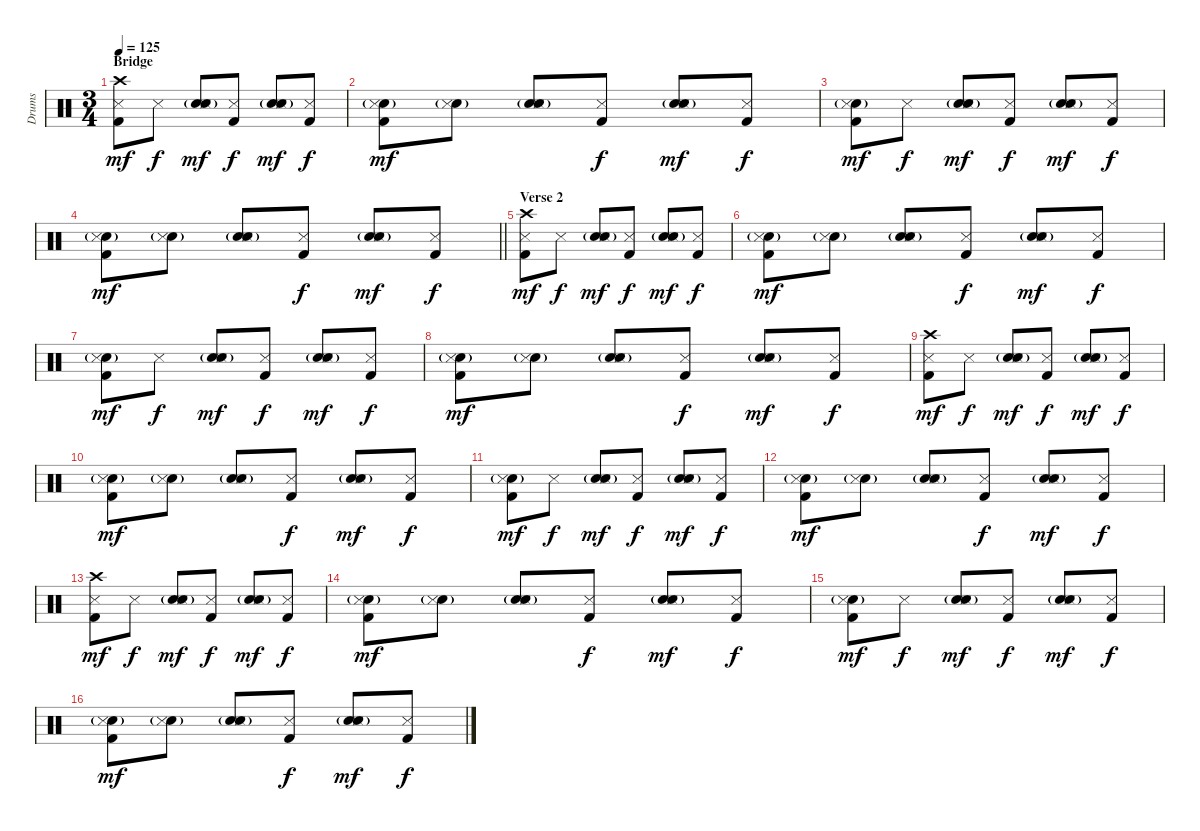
\track ("Drums" "Drums") {instrument percussion}
\staff {score}
\articulation defaults
\ts (3 4)
\section ("" "Bridge")
\tempo 125
\clef neutral
\ks c
("Crash high (hit)" "Snare (side stick) 3" "Kick (hit) 2").8{dy mf} "Snare (side stick) 3".8{dy f} ("Hand Clap (hit)"{g} "Snare (side stick) 3" "Electric Snare (hit)").8{dy mf} ("Snare (side stick) 3" "Kick (hit) 2").8{dy f} ("Hand Clap (hit)"{g} "Snare (side stick) 3" "Electric Snare (hit)").8{dy mf} ("Snare (side stick) 3" "Kick (hit) 2").8{dy f} |
("Hand Clap (hit)"{g} "Snare (side stick) 3" "Kick (hit) 2").8{dy mf} ("Hand Clap (hit)"{g} "Snare (side stick) 3").8 ("Hand Clap (hit)"{g} "Snare (side stick) 3" "Electric Snare (hit)").8 ("Snare (side stick) 3" "Kick (hit) 2").8{dy f} ("Hand Clap (hit)"{g} "Snare (side stick) 3" "Electric Snare (hit)").8{dy mf} ("Snare (side stick) 3" "Kick (hit) 2").8{dy f} |
("Hand Clap (hit)"{g} "Snare (side stick) 3" "Kick (hit) 2").8{dy mf} "Snare (side stick) 3".8{dy f} ("Hand Clap (hit)"{g} "Snare (side stick) 3" "Electric Snare (hit)").8{dy mf} ("Snare (side stick) 3" "Kick (hit) 2").8{dy f} ("Hand Clap (hit)"{g} "Snare (side stick) 3" "Electric Snare (hit)").8{dy mf} ("Snare (side stick) 3" "Kick (hit) 2").8{dy f} |
\barLineRight lightlight
("Hand Clap (hit)"{g} "Snare (side stick) 3" "Kick (hit) 2").8{dy mf} ("Hand Clap (hit)"{g} "Snare (side stick) 3").8 ("Hand Clap (hit)"{g} "Snare (side stick) 3" "Electric Snare (hit)").8 ("Snare (side stick) 3" "Kick (hit) 2").8{dy f} ("Hand Clap (hit)"{g} "Snare (side stick) 3" "Electric Snare (hit)").8{dy mf} ("Snare (side stick) 3" "Kick (hit) 2").8{dy f} |
\section ("" "Verse 2")
("Crash high (hit)" "Snare (side stick) 3" "Kick (hit) 2").8{dy mf} "Snare (side stick) 3".8{dy f} ("Hand Clap (hit)"{g} "Snare (side stick) 3" "Electric Snare (hit)").8{dy mf} ("Snare (side stick) 3" "Kick (hit) 2").8{dy f} ("Hand Clap (hit)"{g} "Snare (side stick) 3" "Electric Snare (hit)").8{dy mf} ("Snare (side stick) 3" "Kick (hit) 2").8{dy f} |
("Hand Clap (hit)"{g} "Snare (side stick) 3" "Kick (hit) 2").8{dy mf} ("Hand Clap (hit)"{g} "Snare (side stick) 3").8 ("Hand Clap (hit)"{g} "Snare (side stick) 3" "Electric Snare (hit)").8 ("Snare (side stick) 3" "Kick (hit) 2").8{dy f} ("Hand Clap (hit)"{g} "Snare (side stick) 3" "Electric Snare (hit)").8{dy mf} ("Snare (side stick) 3" "Kick (hit) 2").8{dy f} |
("Hand Clap (hit)"{g} "Snare (side stick) 3" "Kick (hit) 2").8{dy mf} "Snare (side stick) 3".8{dy f} ("Hand Clap (hit)"{g} "Snare (side stick) 3" "Electric Snare (hit)").8{dy mf} ("Snare (side stick) 3" "Kick (hit) 2").8{dy f} ("Hand Clap (hit)"{g} "Snare (side stick) 3" "Electric Snare (hit)").8{dy mf} ("Snare (side stick) 3" "Kick (hit) 2").8{dy f} |
("Hand Clap (hit)"{g} "Snare (side stick) 3" "Kick (hit) 2").8{dy mf} ("Hand Clap (hit)"{g} "Snare (side stick) 3").8 ("Hand Clap (hit)"{g} "Snare (side stick) 3" "Electric Snare (hit)").8 ("Snare (side stick) 3" "Kick (hit) 2").8{dy f} ("Hand Clap (hit)"{g} "Snare (side stick) 3" "Electric Snare (hit)").8{dy mf} ("Snare (side stick) 3" "Kick (hit) 2").8{dy f} |
("Crash high (hit)" "Snare (side stick) 3" "Kick (hit) 2").8{dy mf} "Snare (side stick) 3".8{dy f} ("Hand Clap (hit)"{g} "Snare (side stick) 3" "Electric Snare (hit)").8{dy mf} ("Snare (side stick) 3" "Kick (hit) 2").8{dy f} ("Hand Clap (hit)"{g} "Snare (side stick) 3" "Electric Snare (hit)").8{dy mf} ("Snare (side stick) 3" "Kick (hit) 2").8{dy f} |
("Hand Clap (hit)"{g} "Snare (side stick) 3" "Kick (hit) 2").8{dy mf} ("Hand Clap (hit)"{g} "Snare (side stick) 3").8 ("Hand Clap (hit)"{g} "Snare (side stick) 3" "Electric Snare (hit)").8 ("Snare (side stick) 3" "Kick (hit) 2").8{dy f} ("Hand Clap (hit)"{g} "Snare (side stick) 3" "Electric Snare (hit)").8{dy mf} ("Snare (side stick) 3" "Kick (hit) 2").8{dy f} |
("Hand Clap (hit)"{g} "Snare (side stick) 3" "Kick (hit) 2").8{dy mf} "Snare (side stick) 3".8{dy f} ("Hand Clap (hit)"{g} "Snare (side stick) 3" "Electric Snare (hit)").8{dy mf} ("Snare (side stick) 3" "Kick (hit) 2").8{dy f} ("Hand Clap (hit)"{g} "Snare (side stick) 3" "Electric Snare (hit)").8{dy mf} ("Snare (side stick) 3" "Kick (hit) 2").8{dy f} |
("Hand Clap (hit)"{g} "Snare (side stick) 3" "Kick (hit) 2").8{dy mf} ("Hand Clap (hit)"{g} "Snare (side stick) 3").8 ("Hand Clap (hit)"{g} "Snare (side stick) 3" "Electric Snare (hit)").8 ("Snare (side stick) 3" "Kick (hit) 2").8{dy f} ("Hand Clap (hit)"{g} "Snare (side stick) 3" "Electric Snare (hit)").8{dy mf} ("Snare (side stick) 3" "Kick (hit) 2").8{dy f} |
("Crash high (hit)" "Snare (side stick) 3" "Kick (hit) 2").8{dy mf} "Snare (side stick) 3".8{dy f} ("Hand Clap (hit)"{g} "Snare (side stick) 3" "Electric Snare (hit)").8{dy mf} ("Snare (side stick) 3" "Kick (hit) 2").8{dy f} ("Hand Clap (hit)"{g} "Snare (side stick) 3" "Electric Snare (hit)").8{dy mf} ("Snare (side stick) 3" "Kick (hit) 2").8{dy f} |
("Hand Clap (hit)"{g} "Snare (side stick) 3" "Kick (hit) 2").8{dy mf} ("Hand Clap (hit)"{g} "Snare (side stick) 3").8 ("Hand Clap (hit)"{g} "Snare (side stick) 3" "Electric Snare (hit)").8 ("Snare (side stick) 3" "Kick (hit) 2").8{dy f} ("Hand Clap (hit)"{g} "Snare (side stick) 3" "Electric Snare (hit)").8{dy mf} ("Snare (side stick) 3" "Kick (hit) 2").8{dy f} |
("Hand Clap (hit)"{g} "Snare (side stick) 3" "Kick (hit) 2").8{dy mf} "Snare (side stick) 3".8{dy f} ("Hand Clap (hit)"{g} "Snare (side stick) 3" "Electric Snare (hit)").8{dy mf} ("Snare (side stick) 3" "Kick (hit) 2").8{dy f} ("Hand Clap (hit)"{g} "Snare (side stick) 3" "Electric Snare (hit)").8{dy mf} ("Snare (side stick) 3" "Kick (hit) 2").8{dy f} |
("Hand Clap (hit)"{g} "Snare (side stick) 3" "Kick (hit) 2").8{dy mf} ("Hand Clap (hit)"{g} "Snare (side stick) 3").8 ("Hand Clap (hit)"{g} "Snare (side stick) 3" "Electric Snare (hit)").8 ("Snare (side stick) 3" "Kick (hit) 2").8{dy f} ("Hand Clap (hit)"{g} "Snare (side stick) 3" "Electric Snare (hit)").8{dy mf} ("Snare (side stick) 3" "Kick (hit) 2").8{dy f}
